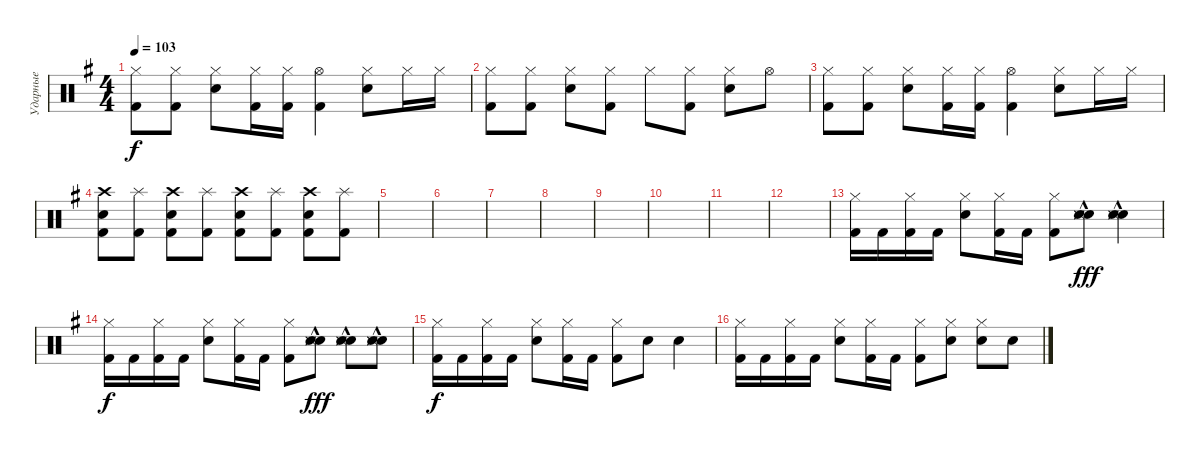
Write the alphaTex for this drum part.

\track ("Ударные" "Ударные") {instrument percussion}
\staff {score}
\articulation defaults
\ts (4 4)
\tempo 103
\clef neutral
\ks eminor
("Hi-Hat (closed)" "Kick (hit) 2").8{dy f} ("Hi-Hat (closed)" "Kick (hit) 2").8 ("Hi-Hat (closed)" "Snare (hit) 2").8 ("Hi-Hat (closed)" "Kick (hit) 2").16 ("Hi-Hat (closed)" "Kick (hit) 2").16 ("Hi-Hat (open)" "Kick (hit) 2").4 ("Hi-Hat (closed)" "Snare (hit) 2").8 "Hi-Hat (closed)".16 "Hi-Hat (closed)".16 |
("Hi-Hat (closed)" "Kick (hit) 2").8 ("Hi-Hat (closed)" "Kick (hit) 2").8 ("Hi-Hat (closed)" "Snare (hit) 2").8 ("Hi-Hat (closed)" "Kick (hit) 2").8 "Hi-Hat (closed)".8 ("Hi-Hat (closed)" "Kick (hit) 2").8 ("Hi-Hat (closed)" "Snare (hit) 2").8 "Hi-Hat (open)".8 |
("Hi-Hat (closed)" "Kick (hit) 2").8 ("Hi-Hat (closed)" "Kick (hit) 2").8 ("Hi-Hat (closed)" "Snare (hit) 2").8 ("Hi-Hat (closed)" "Kick (hit) 2").16 ("Hi-Hat (closed)" "Kick (hit) 2").16 ("Hi-Hat (open)" "Kick (hit) 2").4 ("Hi-Hat (closed)" "Snare (hit) 2").8 "Hi-Hat (closed)".16 "Hi-Hat (closed)".16 |
("Crash high (hit)" "Snare (hit) 2" "Kick (hit) 2").8 ("Splash (hit)" "Kick (hit) 2").8 ("Crash high (hit)" "Snare (hit) 2" "Kick (hit) 2").8 ("Splash (hit)" "Kick (hit) 2").8 ("Crash high (hit)" "Snare (hit) 2" "Kick (hit) 2").8 ("Splash (hit)" "Kick (hit) 2").8 ("Crash high (hit)" "Snare (hit) 2" "Kick (hit) 2").8 ("Splash (hit)" "Kick (hit) 2").8 |
|
|
|
|
|
|
|
|
("Hi-Hat (closed)" "Kick (hit) 2").16 "Kick (hit) 2".16 ("Hi-Hat (closed)" "Kick (hit) 2").16 "Kick (hit) 2".16 ("Hi-Hat (closed)" "Snare (hit) 2").8 ("Hi-Hat (closed)" "Kick (hit) 2").16 "Kick (hit) 2".16 ("Hi-Hat (closed)" "Kick (hit) 2").8 ("Hand Clap (hit)" "Snare (side stick) 3" "Hand Clap (hit)" "Snare (side stick) 3"{hac}).8{dy fff} ("Hand Clap (hit)" "Snare (side stick) 3" "Hand Clap (hit)" "Snare (side stick) 3"{hac}).4 |
("Hi-Hat (closed)" "Kick (hit) 2").16{dy f} "Kick (hit) 2".16 ("Hi-Hat (closed)" "Kick (hit) 2").16 "Kick (hit) 2".16 ("Hi-Hat (closed)" "Snare (hit) 2").8 ("Hi-Hat (closed)" "Kick (hit) 2").16 "Kick (hit) 2".16 ("Hi-Hat (closed)" "Kick (hit) 2").8 ("Hand Clap (hit)" "Snare (side stick) 3" "Hand Clap (hit)" "Snare (side stick) 3"{hac}).8{dy fff} ("Hand Clap (hit)" "Snare (side stick) 3" "Hand Clap (hit)" "Snare (side stick) 3"{hac}).8 ("Hand Clap (hit)" "Snare (side stick) 3" "Hand Clap (hit)" "Snare (side stick) 3"{hac}).8 |
("Hi-Hat (closed)" "Kick (hit) 2").16{dy f} "Kick (hit) 2".16 ("Hi-Hat (closed)" "Kick (hit) 2").16 "Kick (hit) 2".16 ("Hi-Hat (closed)" "Snare (hit) 2").8 ("Hi-Hat (closed)" "Kick (hit) 2").16 "Kick (hit) 2".16 ("Hi-Hat (closed)" "Kick (hit) 2").8 "Hand Clap (hit)".8 "Hand Clap (hit)".4 |
("Hi-Hat (closed)" "Kick (hit) 2").16 "Kick (hit) 2".16 ("Hi-Hat (closed)" "Kick (hit) 2").16 "Kick (hit) 2".16 ("Hi-Hat (closed)" "Snare (hit) 2").8 ("Hi-Hat (closed)" "Kick (hit) 2").16 "Kick (hit) 2".16 ("Hi-Hat (closed)" "Kick (hit) 2").8 ("Hi-Hat (closed)" "Hand Clap (hit)").8 ("Hi-Hat (closed)" "Hand Clap (hit)").8 "Hand Clap (hit)".8
